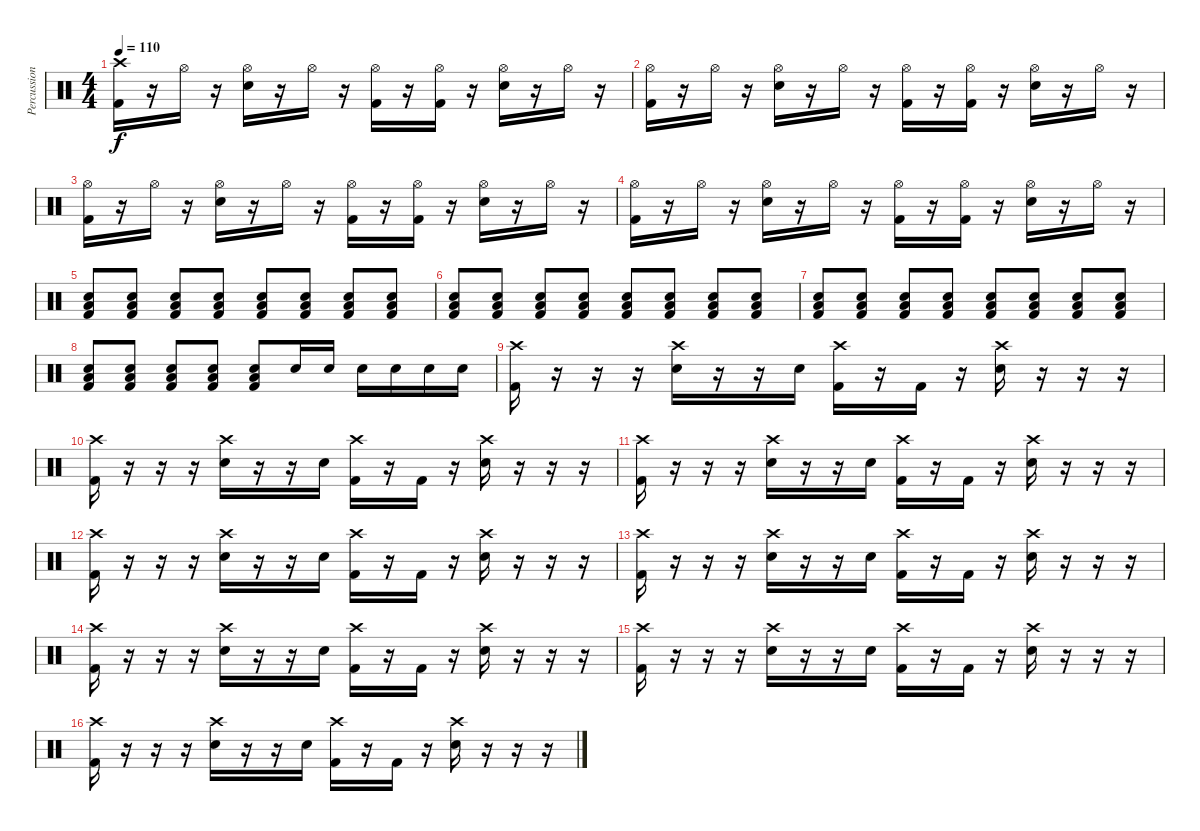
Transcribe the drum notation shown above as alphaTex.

\track ("Percussion" "Percussion") {instrument percussion}
\staff {score}
\articulation defaults
\ts (4 4)
\tempo 110
\clef neutral
\ks c
("Crash high (hit)" "Kick (hit) 2").16{dy f} r.16 "Hi-Hat (open)".16 r.16 ("Hi-Hat (open)" "Snare (hit) 2").16 r.16 "Hi-Hat (open)".16 r.16 ("Hi-Hat (open)" "Kick (hit) 2").16 r.16 ("Hi-Hat (open)" "Kick (hit) 2").16 r.16 ("Hi-Hat (open)" "Snare (hit) 2").16 r.16 "Hi-Hat (open)".16 r.16 |
("Hi-Hat (open)" "Kick (hit) 2").16 r.16 "Hi-Hat (open)".16 r.16 ("Hi-Hat (open)" "Snare (hit) 2").16 r.16 "Hi-Hat (open)".16 r.16 ("Hi-Hat (open)" "Kick (hit) 2").16 r.16 ("Hi-Hat (open)" "Kick (hit) 2").16 r.16 ("Hi-Hat (open)" "Snare (hit) 2").16 r.16 "Hi-Hat (open)".16 r.16 |
("Hi-Hat (open)" "Kick (hit) 2").16 r.16 "Hi-Hat (open)".16 r.16 ("Hi-Hat (open)" "Snare (hit) 2").16 r.16 "Hi-Hat (open)".16 r.16 ("Hi-Hat (open)" "Kick (hit) 2").16 r.16 ("Hi-Hat (open)" "Kick (hit) 2").16 r.16 ("Hi-Hat (open)" "Snare (hit) 2").16 r.16 "Hi-Hat (open)".16 r.16 |
("Hi-Hat (open)" "Kick (hit) 2").16 r.16 "Hi-Hat (open)".16 r.16 ("Hi-Hat (open)" "Snare (hit) 2").16 r.16 "Hi-Hat (open)".16 r.16 ("Hi-Hat (open)" "Kick (hit) 2").16 r.16 ("Hi-Hat (open)" "Kick (hit) 2").16 r.16 ("Hi-Hat (open)" "Snare (hit) 2").16 r.16 "Hi-Hat (open)".16 r.16 |
("Snare (hit) 2" "Low Floor Tom (hit)" "Kick (hit) 2").8{volume 4} ("Snare (hit) 2" "Low Floor Tom (hit)" "Kick (hit) 2").8 ("Snare (hit) 2" "Low Floor Tom (hit)" "Kick (hit) 2").8{volume 5} ("Snare (hit) 2" "Low Floor Tom (hit)" "Kick (hit) 2").8 ("Snare (hit) 2" "Low Floor Tom (hit)" "Kick (hit) 2").8{volume 6} ("Snare (hit) 2" "Low Floor Tom (hit)" "Kick (hit) 2").8 ("Snare (hit) 2" "Low Floor Tom (hit)" "Kick (hit) 2").8{volume 7} ("Snare (hit) 2" "Low Floor Tom (hit)" "Kick (hit) 2").8 |
("Snare (hit) 2" "Low Floor Tom (hit)" "Kick (hit) 2").8{volume 8} ("Snare (hit) 2" "Low Floor Tom (hit)" "Kick (hit) 2").8 ("Snare (hit) 2" "Low Floor Tom (hit)" "Kick (hit) 2").8{volume 9} ("Snare (hit) 2" "Low Floor Tom (hit)" "Kick (hit) 2").8 ("Snare (hit) 2" "Low Floor Tom (hit)" "Kick (hit) 2").8{volume 10} ("Snare (hit) 2" "Low Floor Tom (hit)" "Kick (hit) 2").8 ("Snare (hit) 2" "Low Floor Tom (hit)" "Kick (hit) 2").8{volume 11} ("Snare (hit) 2" "Low Floor Tom (hit)" "Kick (hit) 2").8 |
("Snare (hit) 2" "Low Floor Tom (hit)" "Kick (hit) 2").8{volume 12} ("Snare (hit) 2" "Low Floor Tom (hit)" "Kick (hit) 2").8 ("Snare (hit) 2" "Low Floor Tom (hit)" "Kick (hit) 2").8{volume 13} ("Snare (hit) 2" "Low Floor Tom (hit)" "Kick (hit) 2").8 ("Snare (hit) 2" "Low Floor Tom (hit)" "Kick (hit) 2").8 ("Snare (hit) 2" "Low Floor Tom (hit)" "Kick (hit) 2").8 ("Snare (hit) 2" "Low Floor Tom (hit)" "Kick (hit) 2").8 ("Snare (hit) 2" "Low Floor Tom (hit)" "Kick (hit) 2").8 |
("Snare (hit) 2" "Low Floor Tom (hit)" "Kick (hit) 2").8 ("Snare (hit) 2" "Low Floor Tom (hit)" "Kick (hit) 2").8 ("Snare (hit) 2" "Low Floor Tom (hit)" "Kick (hit) 2").8 ("Snare (hit) 2" "Low Floor Tom (hit)" "Kick (hit) 2").8 ("Snare (hit) 2" "Low Floor Tom (hit)" "Kick (hit) 2").8 "Snare (hit) 2".16 "Snare (hit) 2".16 "Snare (hit) 2".16 "Snare (hit) 2".16 "Snare (hit) 2".16 "Snare (hit) 2".16 |
("Crash high (hit)" "Kick (hit) 2").16 r.16 r.16 r.16 ("Crash high (hit)" "Snare (hit) 2").16 r.16 r.16 "Snare (hit) 2".16 ("Crash high (hit)" "Kick (hit) 2").16 r.16 "Kick (hit) 2".16 r.16 ("Crash high (hit)" "Snare (hit) 2").16 r.16 r.16 r.16 |
("Crash high (hit)" "Kick (hit) 2").16 r.16 r.16 r.16 ("Crash high (hit)" "Snare (hit) 2").16 r.16 r.16 "Snare (hit) 2".16 ("Crash high (hit)" "Kick (hit) 2").16 r.16 "Kick (hit) 2".16 r.16 ("Crash high (hit)" "Snare (hit) 2").16 r.16 r.16 r.16 |
("Crash high (hit)" "Kick (hit) 2").16 r.16 r.16 r.16 ("Crash high (hit)" "Snare (hit) 2").16 r.16 r.16 "Snare (hit) 2".16 ("Crash high (hit)" "Kick (hit) 2").16 r.16 "Kick (hit) 2".16 r.16 ("Crash high (hit)" "Snare (hit) 2").16 r.16 r.16 r.16 |
("Crash high (hit)" "Kick (hit) 2").16 r.16 r.16 r.16 ("Crash high (hit)" "Snare (hit) 2").16 r.16 r.16 "Snare (hit) 2".16 ("Crash high (hit)" "Kick (hit) 2").16 r.16 "Kick (hit) 2".16 r.16 ("Crash high (hit)" "Snare (hit) 2").16 r.16 r.16 r.16 |
("Crash high (hit)" "Kick (hit) 2").16 r.16 r.16 r.16 ("Crash high (hit)" "Snare (hit) 2").16 r.16 r.16 "Snare (hit) 2".16 ("Crash high (hit)" "Kick (hit) 2").16 r.16 "Kick (hit) 2".16 r.16 ("Crash high (hit)" "Snare (hit) 2").16 r.16 r.16 r.16 |
("Crash high (hit)" "Kick (hit) 2").16 r.16 r.16 r.16 ("Crash high (hit)" "Snare (hit) 2").16 r.16 r.16 "Snare (hit) 2".16 ("Crash high (hit)" "Kick (hit) 2").16 r.16 "Kick (hit) 2".16 r.16 ("Crash high (hit)" "Snare (hit) 2").16 r.16 r.16 r.16 |
("Crash high (hit)" "Kick (hit) 2").16 r.16 r.16 r.16 ("Crash high (hit)" "Snare (hit) 2").16 r.16 r.16 "Snare (hit) 2".16 ("Crash high (hit)" "Kick (hit) 2").16 r.16 "Kick (hit) 2".16 r.16 ("Crash high (hit)" "Snare (hit) 2").16 r.16 r.16 r.16 |
("Crash high (hit)" "Kick (hit) 2").16 r.16 r.16 r.16 ("Crash high (hit)" "Snare (hit) 2").16 r.16 r.16 "Snare (hit) 2".16 ("Crash high (hit)" "Kick (hit) 2").16 r.16 "Kick (hit) 2".16 r.16 ("Crash high (hit)" "Snare (hit) 2").16 r.16 r.16 r.16
